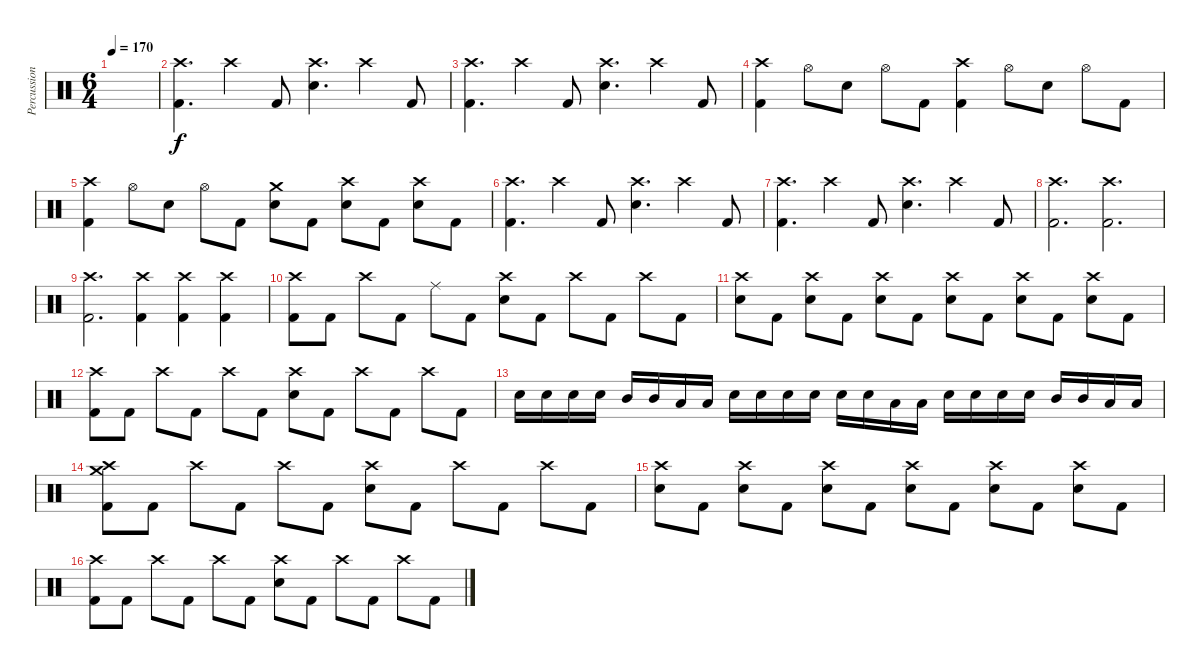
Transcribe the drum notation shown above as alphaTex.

\track ("Percussion" "Percussion") {instrument percussion}
\staff {score}
\articulation defaults
\ts (6 4)
\tempo 170
\clef neutral
\ks c
|
("Crash high (hit)" "Kick (hit) 2").4{d} "Crash high (hit)".4 "Kick (hit) 2".8 ("Crash high (hit)" "Electric Snare (hit)").4{d} "Crash high (hit)".4 "Kick (hit) 2".8 |
("Crash high (hit)" "Kick (hit) 2").4{d} "Crash high (hit)".4 "Kick (hit) 2".8 ("Crash high (hit)" "Electric Snare (hit)").4{d} "Crash high (hit)".4 "Kick (hit) 2".8 |
("Crash high (hit)" "Kick (hit) 2").4 "Hi-Hat (open)".8 "Electric Snare (hit)".8 "Hi-Hat (open)".8 "Kick (hit) 2".8 ("Crash high (hit)" "Kick (hit) 2").4 "Hi-Hat (open)".8 "Electric Snare (hit)".8 "Hi-Hat (open)".8 "Kick (hit) 2".8 |
("Crash high (hit)" "Kick (hit) 2").4 "Hi-Hat (open)".8 "Electric Snare (hit)".8 "Hi-Hat (open)".8 "Kick (hit) 2".8 ("Crash medium (hit)" "Electric Snare (hit)").8 "Kick (hit) 2".8 ("Crash high (hit)" "Electric Snare (hit)").8 "Kick (hit) 2".8 ("Crash high (hit)" "Electric Snare (hit)").8 "Kick (hit) 2".8 |
("Crash high (hit)" "Kick (hit) 2").4{d} "Crash high (hit)".4 "Kick (hit) 2".8 ("Crash high (hit)" "Electric Snare (hit)").4{d} "Crash high (hit)".4 "Kick (hit) 2".8 |
("Crash high (hit)" "Kick (hit) 2").4{d} "Crash high (hit)".4 "Kick (hit) 2".8 ("Crash high (hit)" "Electric Snare (hit)").4{d} "Crash high (hit)".4 "Kick (hit) 2".8 |
("Crash high (hit)" "Kick (hit) 2").2{d} ("Crash high (hit)" "Kick (hit) 2").2{d} |
("Crash high (hit)" "Kick (hit) 2").2{d} ("Crash high (hit)" "Kick (hit) 2").4 ("Crash high (hit)" "Kick (hit) 2").4 ("Crash high (hit)" "Kick (hit) 2").4 |
("Crash high (hit)" "Kick (hit) 2").8 "Kick (hit) 2".8 "Crash high (hit)".8 "Kick (hit) 2".8 "Ride (middle)".8 "Kick (hit) 2".8 ("Crash high (hit)" "Electric Snare (hit)").8 "Kick (hit) 2".8 "Crash high (hit)".8 "Kick (hit) 2".8 "Crash high (hit)".8 "Kick (hit) 2".8 |
("Crash high (hit)" "Electric Snare (hit)").8 "Kick (hit) 2".8 ("Crash high (hit)" "Electric Snare (hit)").8 "Kick (hit) 2".8 ("Crash high (hit)" "Electric Snare (hit)").8 "Kick (hit) 2".8 ("Crash high (hit)" "Electric Snare (hit)").8 "Kick (hit) 2".8 ("Crash high (hit)" "Electric Snare (hit)").8 "Kick (hit) 2".8 ("Crash high (hit)" "Electric Snare (hit)").8 "Kick (hit) 2".8 |
("Crash high (hit)" "Kick (hit) 2").8 "Kick (hit) 2".8 "Crash high (hit)".8 "Kick (hit) 2".8 "Crash high (hit)".8 "Kick (hit) 2".8 ("Crash high (hit)" "Electric Snare (hit)").8 "Kick (hit) 2".8 "Crash high (hit)".8 "Kick (hit) 2".8 "Crash high (hit)".8 "Kick (hit) 2".8 |
"Electric Snare (hit)".16 "Electric Snare (hit)".16 "Electric Snare (hit)".16 "Electric Snare (hit)".16 "Mid Tom (hit)".16 "Mid Tom (hit)".16 "Low Tom (hit)".16 "Low Tom (hit)".16 "Electric Snare (hit)".16 "Electric Snare (hit)".16 "Electric Snare (hit)".16 "Electric Snare (hit)".16 "Electric Snare (hit)".16 "Electric Snare (hit)".16 "Low Tom (hit)".16 "Low Tom (hit)".16 "Electric Snare (hit)".16 "Electric Snare (hit)".16 "Electric Snare (hit)".16 "Electric Snare (hit)".16 "Mid Tom (hit)".16 "Mid Tom (hit)".16 "Low Tom (hit)".16 "Low Tom (hit)".16 |
("Crash medium (hit)" "Crash high (hit)" "Kick (hit) 2").8 "Kick (hit) 2".8 "Crash high (hit)".8 "Kick (hit) 2".8 "Crash high (hit)".8 "Kick (hit) 2".8 ("Crash high (hit)" "Electric Snare (hit)").8 "Kick (hit) 2".8 "Crash high (hit)".8 "Kick (hit) 2".8 "Crash high (hit)".8 "Kick (hit) 2".8 |
("Crash high (hit)" "Electric Snare (hit)").8 "Kick (hit) 2".8 ("Crash high (hit)" "Electric Snare (hit)").8 "Kick (hit) 2".8 ("Crash high (hit)" "Electric Snare (hit)").8 "Kick (hit) 2".8 ("Crash high (hit)" "Electric Snare (hit)").8 "Kick (hit) 2".8 ("Crash high (hit)" "Electric Snare (hit)").8 "Kick (hit) 2".8 ("Crash high (hit)" "Electric Snare (hit)").8 "Kick (hit) 2".8 |
("Crash high (hit)" "Kick (hit) 2").8 "Kick (hit) 2".8 "Crash high (hit)".8 "Kick (hit) 2".8 "Crash high (hit)".8 "Kick (hit) 2".8 ("Crash high (hit)" "Electric Snare (hit)").8 "Kick (hit) 2".8 "Crash high (hit)".8 "Kick (hit) 2".8 "Crash high (hit)".8 "Kick (hit) 2".8
